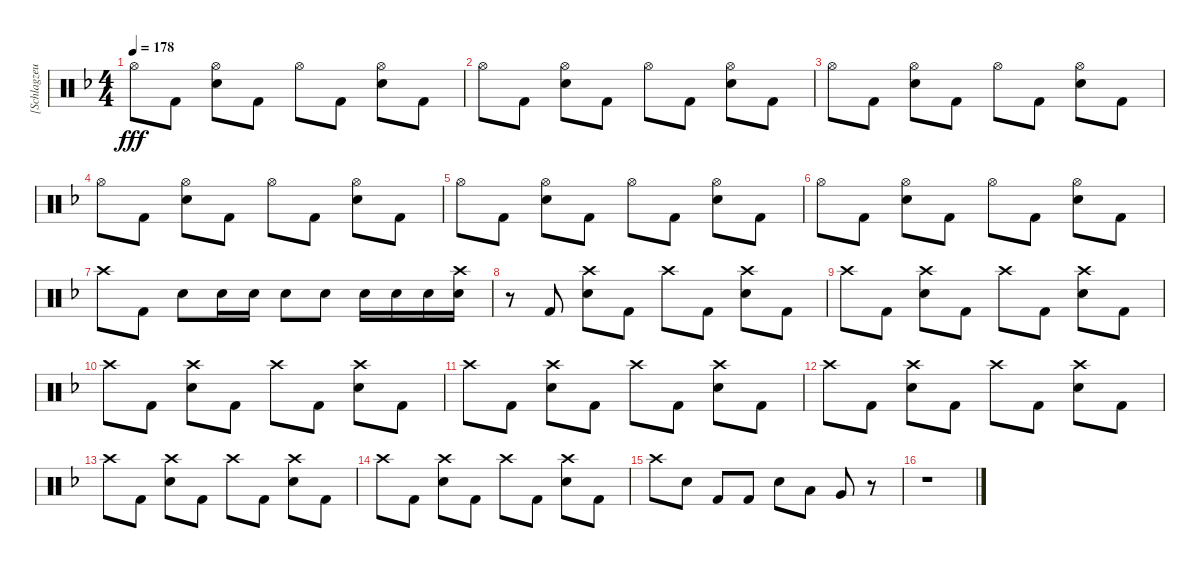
\track ("[Schlagzeug]" "[Schlagzeu") {instrument percussion}
\staff {score}
\articulation defaults
\ts (4 4)
\tempo 178
\clef neutral
\ks dminor "Hi-Hat (open)".8{dy fff} "Kick (hit) 2".8
("Hi-Hat (open)" "Electric Snare (hit)").8 "Kick (hit) 2".8 "Hi-Hat (open)".8 "Kick (hit) 2".8 ("Hi-Hat (open)" "Electric Snare (hit)").8 "Kick (hit) 2".8 |
"Hi-Hat (open)".8 "Kick (hit) 2".8 ("Hi-Hat (open)" "Electric Snare (hit)").8 "Kick (hit) 2".8 "Hi-Hat (open)".8 "Kick (hit) 2".8 ("Hi-Hat (open)" "Electric Snare (hit)").8 "Kick (hit) 2".8 |
"Hi-Hat (open)".8 "Kick (hit) 2".8 ("Hi-Hat (open)" "Electric Snare (hit)").8 "Kick (hit) 2".8 "Hi-Hat (open)".8 "Kick (hit) 2".8 ("Hi-Hat (open)" "Electric Snare (hit)").8 "Kick (hit) 2".8 |
"Hi-Hat (open)".8 "Kick (hit) 2".8 ("Hi-Hat (open)" "Electric Snare (hit)").8 "Kick (hit) 2".8 "Hi-Hat (open)".8 "Kick (hit) 2".8 ("Hi-Hat (open)" "Electric Snare (hit)").8 "Kick (hit) 2".8 |
"Hi-Hat (open)".8 "Kick (hit) 2".8 ("Hi-Hat (open)" "Electric Snare (hit)").8 "Kick (hit) 2".8 "Hi-Hat (open)".8 "Kick (hit) 2".8 ("Hi-Hat (open)" "Electric Snare (hit)").8 "Kick (hit) 2".8 |
"Hi-Hat (open)".8 "Kick (hit) 2".8 ("Hi-Hat (open)" "Electric Snare (hit)").8 "Kick (hit) 2".8 "Hi-Hat (open)".8 "Kick (hit) 2".8 ("Hi-Hat (open)" "Electric Snare (hit)").8 "Kick (hit) 2".8 |
"Crash high (hit)".8 "Kick (hit) 2".8 "Electric Snare (hit)".8 "Electric Snare (hit)".16 "Electric Snare (hit)".16 "Electric Snare (hit)".8 "Electric Snare (hit)".8 "Electric Snare (hit)".16 "Electric Snare (hit)".16 "Electric Snare (hit)".16 ("Crash high (hit)" "Electric Snare (hit)").16 |
r.8 "Kick (hit) 2".8 ("Crash high (hit)" "Electric Snare (hit)").8 "Kick (hit) 2".8 "Crash high (hit)".8 "Kick (hit) 2".8 ("Crash high (hit)" "Electric Snare (hit)").8 "Kick (hit) 2".8 |
"Crash high (hit)".8 "Kick (hit) 2".8 ("Crash high (hit)" "Electric Snare (hit)").8 "Kick (hit) 2".8 "Crash high (hit)".8 "Kick (hit) 2".8 ("Crash high (hit)" "Electric Snare (hit)").8 "Kick (hit) 2".8 |
"Crash high (hit)".8 "Kick (hit) 2".8 ("Crash high (hit)" "Electric Snare (hit)").8 "Kick (hit) 2".8 "Crash high (hit)".8 "Kick (hit) 2".8 ("Crash high (hit)" "Electric Snare (hit)").8 "Kick (hit) 2".8 |
"Crash high (hit)".8 "Kick (hit) 2".8 ("Crash high (hit)" "Electric Snare (hit)").8 "Kick (hit) 2".8 "Crash high (hit)".8 "Kick (hit) 2".8 ("Crash high (hit)" "Electric Snare (hit)").8 "Kick (hit) 2".8 |
"Crash high (hit)".8 "Kick (hit) 2".8 ("Crash high (hit)" "Electric Snare (hit)").8 "Kick (hit) 2".8 "Crash high (hit)".8 "Kick (hit) 2".8 ("Crash high (hit)" "Electric Snare (hit)").8 "Kick (hit) 2".8 |
"Crash high (hit)".8 "Kick (hit) 2".8 ("Crash high (hit)" "Electric Snare (hit)").8 "Kick (hit) 2".8 "Crash high (hit)".8 "Kick (hit) 2".8 ("Crash high (hit)" "Electric Snare (hit)").8 "Kick (hit) 2".8 |
"Crash high (hit)".8 "Kick (hit) 2".8 ("Crash high (hit)" "Electric Snare (hit)").8 "Kick (hit) 2".8 "Crash high (hit)".8 "Kick (hit) 2".8 ("Crash high (hit)" "Electric Snare (hit)").8 "Kick (hit) 2".8 |
"Crash high (hit)".8 "Electric Snare (hit)".8 "Kick (hit) 2".8 "Kick (hit) 2".8 "Electric Snare (hit)".8 "Low Tom (hit)".8 "Very Low Tom (hit)".8 r.8 |
r.1
